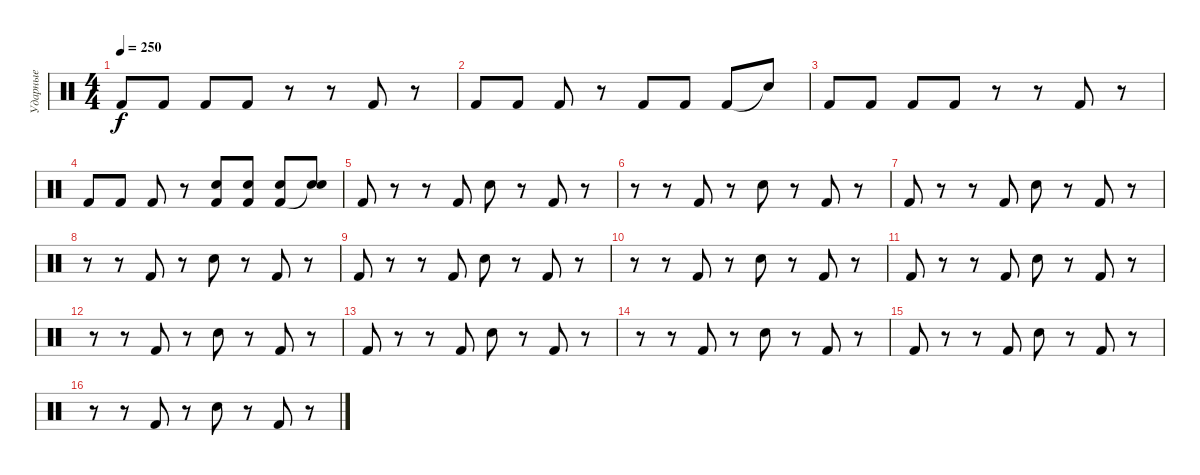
\track ("Ударные" "Ударные") {instrument percussion}
\staff {score}
\articulation defaults
\ts (4 4)
\tempo 250
\clef neutral
\ks c "Kick (hit) 2".8{dy f} "Kick (hit) 2".8 "Kick (hit) 2".8 "Kick (hit) 2".8
r.8 r.8 "Kick (hit) 2".8 r.8 |
"Kick (hit) 2".8 "Kick (hit) 2".8 "Kick (hit) 2".8 r.8 "Kick (hit) 2".8 "Kick (hit) 2".8 "Kick (hit) 2".8 "Snare (hit)"{t}.8 |
"Kick (hit) 2".8 "Kick (hit) 2".8 "Kick (hit) 2".8 "Kick (hit) 2".8 r.8 r.8 "Kick (hit) 2".8 r.8 |
"Kick (hit) 2".8 "Kick (hit) 2".8 "Kick (hit) 2".8 r.8 ("Kick (hit) 2" "Snare (hit) 2").8 ("Kick (hit) 2" "Snare (hit) 2").8 ("Kick (hit) 2" "Snare (hit) 2").8 ("Snare (hit)"{t} "Snare (hit) 2").8 |
"Kick (hit) 2".8 r.8 r.8 "Kick (hit) 2".8 "Snare (hit) 2".8 r.8 "Kick (hit) 2".8 r.8 |
r.8 r.8 "Kick (hit) 2".8 r.8 "Snare (hit) 2".8 r.8 "Kick (hit) 2".8 r.8 |
"Kick (hit) 2".8 r.8 r.8 "Kick (hit) 2".8 "Snare (hit) 2".8 r.8 "Kick (hit) 2".8 r.8 |
r.8 r.8 "Kick (hit) 2".8 r.8 "Snare (hit) 2".8 r.8 "Kick (hit) 2".8 r.8 |
"Kick (hit) 2".8 r.8 r.8 "Kick (hit) 2".8 "Snare (hit) 2".8 r.8 "Kick (hit) 2".8 r.8 |
r.8 r.8 "Kick (hit) 2".8 r.8 "Snare (hit) 2".8 r.8 "Kick (hit) 2".8 r.8 |
"Kick (hit) 2".8 r.8 r.8 "Kick (hit) 2".8 "Snare (hit) 2".8 r.8 "Kick (hit) 2".8 r.8 |
r.8 r.8 "Kick (hit) 2".8 r.8 "Snare (hit) 2".8 r.8 "Kick (hit) 2".8 r.8 |
"Kick (hit) 2".8 r.8 r.8 "Kick (hit) 2".8 "Snare (hit) 2".8 r.8 "Kick (hit) 2".8 r.8 |
r.8 r.8 "Kick (hit) 2".8 r.8 "Snare (hit) 2".8 r.8 "Kick (hit) 2".8 r.8 |
"Kick (hit) 2".8 r.8 r.8 "Kick (hit) 2".8 "Snare (hit) 2".8 r.8 "Kick (hit) 2".8 r.8 |
r.8 r.8 "Kick (hit) 2".8 r.8 "Snare (hit) 2".8 r.8 "Kick (hit) 2".8 r.8
